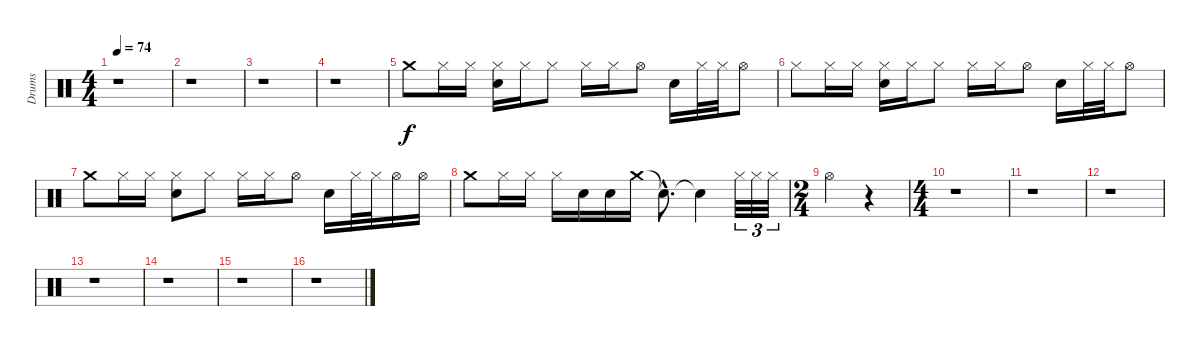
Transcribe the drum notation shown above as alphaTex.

\track ("Drums" "Drums") {instrument percussion}
\staff {score}
\articulation defaults
\ts (4 4)
\tempo 74
\clef neutral
\ks c
r.1{dy f} |
r.1 |
r.1 |
r.1 |
"Crash medium (hit)".8 "Hi-Hat (closed)".16 "Hi-Hat (closed)".16 ("Hi-Hat (closed)" "Electric Snare (hit)").16 "Hi-Hat (closed)".16 "Hi-Hat (closed)".8 "Hi-Hat (closed)".16 "Hi-Hat (closed)".16 "Hi-Hat (open)".8 "Electric Snare (hit)".16 "Hi-Hat (closed)".32 "Hi-Hat (closed)".32 "Hi-Hat (open)".8 |
"Hi-Hat (closed)".8 "Hi-Hat (closed)".16 "Hi-Hat (closed)".16 ("Hi-Hat (closed)" "Electric Snare (hit)").16 "Hi-Hat (closed)".16 "Hi-Hat (closed)".8 "Hi-Hat (closed)".16 "Hi-Hat (closed)".16 "Hi-Hat (open)".8 "Electric Snare (hit)".16 "Hi-Hat (closed)".32 "Hi-Hat (closed)".32 "Hi-Hat (open)".8 |
"Crash medium (hit)".8 "Hi-Hat (closed)".16 "Hi-Hat (closed)".16 ("Hi-Hat (closed)" "Electric Snare (hit)").8 "Hi-Hat (closed)".8 "Hi-Hat (closed)".16 "Hi-Hat (closed)".16 "Hi-Hat (open)".8 "Electric Snare (hit)".16 "Hi-Hat (closed)".32 "Hi-Hat (closed)".32 "Hi-Hat (open)".16 "Hi-Hat (open)".16 |
"Crash medium (hit)".8 "Hi-Hat (closed)".16 "Hi-Hat (closed)".16 "Hi-Hat (closed)".16 "Electric Snare (hit)".16 "Electric Snare (hit)".16 "Crash medium (hit)".16 "Snare (hit)"{hac t}.8{d} "Snare (hit)"{t}.4 "Hi-Hat (closed)".32{tu (3 2)} "Hi-Hat (closed)".32{tu (3 2)} "Hi-Hat (closed)".32{tu (3 2)} |
\ts (2 4)
"Hi-Hat (open)".4 r.4 |
\ts (4 4)
r.1 |
r.1 |
r.1 |
r.1 |
r.1 |
r.1 |
r.1
